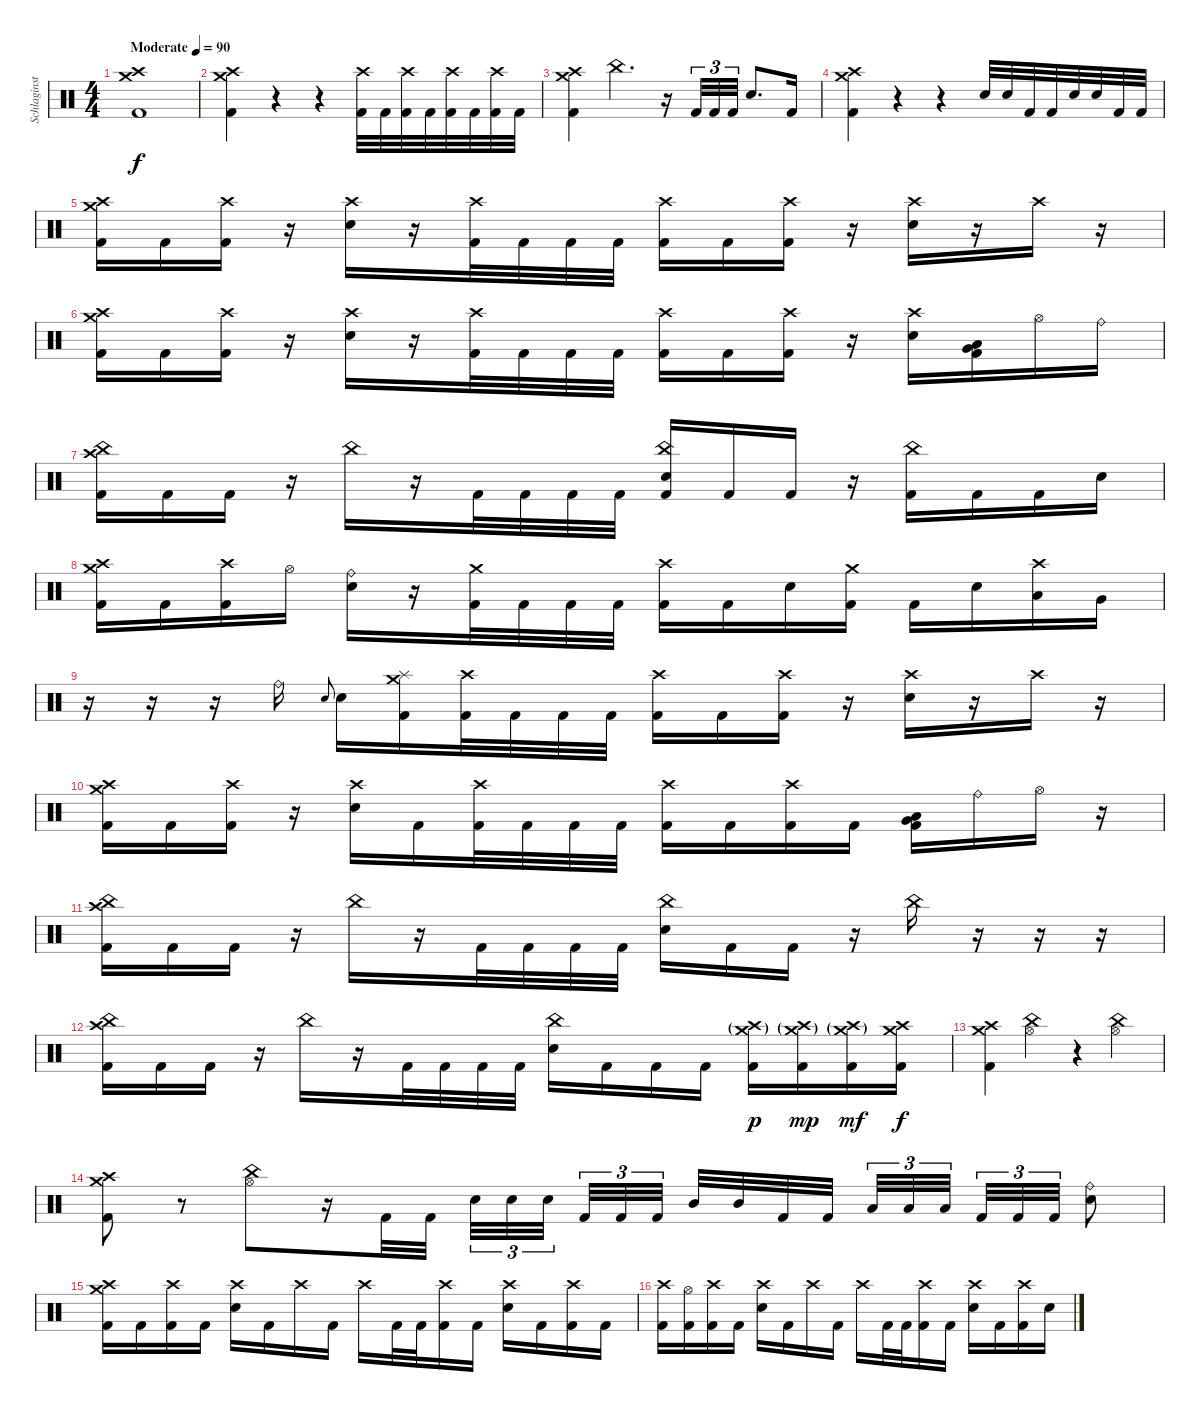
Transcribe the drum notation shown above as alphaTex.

\track ("Schlaginstrumente - Auswahl" "Schlaginst") {instrument percussion}
\staff {score}
\articulation defaults
\ts (4 4)
\tempo (90 "Moderate")
\clef neutral
\ks c
("Crash high (hit)" "Crash medium (hit)" "Kick (hit) 2").1{dy f} |
("Crash high (hit)" "Crash medium (hit)" "Kick (hit) 2").4 r.4 r.4 ("Crash high (hit)" "Kick (hit) 2").32 "Kick (hit) 2".32 ("Crash high (hit)" "Kick (hit) 2").32 "Kick (hit) 2".32 ("Crash high (hit)" "Kick (hit) 2").32 "Kick (hit) 2".32 ("Crash high (hit)" "Kick (hit) 2").32 "Kick (hit) 2".32 |
("Crash high (hit)" "Crash medium (hit)" "Kick (hit) 2").4 "China (hit)".4{d} r.16 "Kick (hit) 2".32{tu (3 2)} "Kick (hit) 2".32{tu (3 2)} "Kick (hit) 2".32{tu (3 2)} "Electric Snare (hit)".8{d} "Kick (hit) 2".16 |
("Crash high (hit)" "Crash medium (hit)" "Kick (hit) 2").4 r.4 r.4 "Electric Snare (hit)".32 "Electric Snare (hit)".32 "Kick (hit) 2".32 "Kick (hit) 2".32 "Electric Snare (hit)".32 "Electric Snare (hit)".32 "Kick (hit) 2".32 "Kick (hit) 2".32 |
("Crash high (hit)" "Crash medium (hit)" "Kick (hit) 2").16 "Kick (hit) 2".16 ("Crash high (hit)" "Kick (hit) 2").16 r.16 ("Crash high (hit)" "Electric Snare (hit)").16 r.16 ("Crash high (hit)" "Kick (hit) 2").32 "Kick (hit) 2".32 "Kick (hit) 2".32 "Kick (hit) 2".32 ("Crash high (hit)" "Kick (hit) 2").16 "Kick (hit) 2".16 ("Crash high (hit)" "Kick (hit) 2").16 r.16 ("Crash high (hit)" "Electric Snare (hit)").16 r.16 "Crash high (hit)".16 r.16 |
("Crash high (hit)" "Crash medium (hit)" "Kick (hit) 2").16 "Kick (hit) 2".16 ("Crash high (hit)" "Kick (hit) 2").16 r.16 ("Crash high (hit)" "Electric Snare (hit)").16 r.16 ("Crash high (hit)" "Kick (hit) 2").32 "Kick (hit) 2".32 "Kick (hit) 2".32 "Kick (hit) 2".32 ("Crash high (hit)" "Kick (hit) 2").16 "Kick (hit) 2".16 ("Crash high (hit)" "Kick (hit) 2").16 r.16 ("Crash high (hit)" "Electric Snare (hit)").16 ("Very Low Tom (hit)" "Low Floor Tom (hit)" "Kick (hit) 2").16 "Hi-Hat (open)".16 "Ride (bell)".16 |
("Crash high (hit)" "China (hit)" "Kick (hit) 2").16 "Kick (hit) 2".16 "Kick (hit) 2".16 r.16 "China (hit)".16 r.16 "Kick (hit) 2".32 "Kick (hit) 2".32 "Kick (hit) 2".32 "Kick (hit) 2".32 ("China (hit)" "Electric Snare (hit)" "Kick (hit) 2").16 "Kick (hit) 2".16 "Kick (hit) 2".16 r.16 ("China (hit)" "Kick (hit) 2").16 "Kick (hit) 2".16 "Kick (hit) 2".16 "Electric Snare (hit)".16 |
("Crash high (hit)" "Crash medium (hit)" "Kick (hit) 2").16 "Kick (hit) 2".16 ("Crash high (hit)" "Kick (hit) 2").16 "Hi-Hat (open)".16 ("Ride (bell)" "Electric Snare (hit)").16 r.16 ("Crash medium (hit)" "Kick (hit) 2").32 "Kick (hit) 2".32 "Kick (hit) 2".32 "Kick (hit) 2".32 ("Crash high (hit)" "Kick (hit) 2").16 "Kick (hit) 2".16 "Electric Snare (hit)".16 ("Crash medium (hit)" "Kick (hit) 2").16 "Kick (hit) 2".16 "Electric Snare (hit)".16 ("Crash high (hit)" "Low Tom (hit)").16 "Very Low Tom (hit)".16 |
r.16 r.16 r.16 "Ride (bell)".16 "Electric Snare (hit)".8{gr onbeat} "Electric Snare (hit)".16 ("Splash (hit)" "Crash medium (hit)" "Kick (hit) 2").16 ("Crash high (hit)" "Kick (hit) 2").32 "Kick (hit) 2".32 "Kick (hit) 2".32 "Kick (hit) 2".32 ("Crash high (hit)" "Kick (hit) 2").16 "Kick (hit) 2".16 ("Crash high (hit)" "Kick (hit) 2").16 r.16 ("Crash high (hit)" "Electric Snare (hit)").16 r.16 "Crash high (hit)".16 r.16 |
("Crash high (hit)" "Crash medium (hit)" "Kick (hit) 2").16 "Kick (hit) 2".16 ("Crash high (hit)" "Kick (hit) 2").16 r.16 ("Crash high (hit)" "Electric Snare (hit)").16 "Kick (hit) 2".16 ("Crash high (hit)" "Kick (hit) 2").32 "Kick (hit) 2".32 "Kick (hit) 2".32 "Kick (hit) 2".32 ("Crash high (hit)" "Kick (hit) 2").16 "Kick (hit) 2".16 ("Crash high (hit)" "Kick (hit) 2").16 "Kick (hit) 2".16 ("Very Low Tom (hit)" "Low Floor Tom (hit)" "Kick (hit) 2").16 "Ride (bell)".16 "Hi-Hat (open)".16 r.16 |
("Crash high (hit)" "China (hit)" "Kick (hit) 2").16 "Kick (hit) 2".16 "Kick (hit) 2".16 r.16 "China (hit)".16 r.16 "Kick (hit) 2".32 "Kick (hit) 2".32 "Kick (hit) 2".32 "Kick (hit) 2".32 ("China (hit)" "Electric Snare (hit)").16 "Kick (hit) 2".16 "Kick (hit) 2".16 r.16 "China (hit)".16 r.16 r.16 r.16 |
("Crash high (hit)" "China (hit)" "Kick (hit) 2").16 "Kick (hit) 2".16 "Kick (hit) 2".16 r.16 "China (hit)".16 r.16 "Kick (hit) 2".32 "Kick (hit) 2".32 "Kick (hit) 2".32 "Kick (hit) 2".32 ("China (hit)" "Electric Snare (hit)").16 "Kick (hit) 2".16 "Kick (hit) 2".16 "Kick (hit) 2".16 ("Crash medium (hit)"{g} "Crash high (hit)"{g} "Kick (hit) 2").16{dy p} ("Crash medium (hit)"{g} "Crash high (hit)"{g} "Kick (hit) 2").16{dy mp} ("Crash medium (hit)"{g} "Crash high (hit)"{g} "Kick (hit) 2").16{dy mf} ("Crash medium (hit)" "Crash high (hit)" "Kick (hit) 2").16{dy f} |
("Crash high (hit)" "Crash medium (hit)" "Kick (hit) 2").4 ("China (hit)" "Hi-Hat (open)").4 r.4 ("China (hit)" "Hi-Hat (open)").4 |
("Crash high (hit)" "Crash medium (hit)" "Kick (hit) 2").8 r.8 ("China (hit)" "Hi-Hat (open)").8 r.16 "Kick (hit) 2".32 "Kick (hit) 2".32 "Electric Snare (hit)".32{tu (3 2)} "Electric Snare (hit)".32{tu (3 2)} "Electric Snare (hit)".32{tu (3 2) beam splitsecondary} "Kick (hit) 2".32{tu (3 2)} "Kick (hit) 2".32{tu (3 2)} "Kick (hit) 2".32{tu (3 2) beam splitsecondary} "Mid Tom (hit)".32 "Mid Tom (hit)".32 "Kick (hit) 2".32 "Kick (hit) 2".32 "Low Tom (hit)".32{tu (3 2)} "Low Tom (hit)".32{tu (3 2)} "Low Tom (hit)".32{tu (3 2) beam splitsecondary} "Kick (hit) 2".32{tu (3 2)} "Kick (hit) 2".32{tu (3 2)} "Kick (hit) 2".32{tu (3 2)} ("Ride (bell)" "Electric Snare (hit)").8 |
("Crash high (hit)" "Crash medium (hit)" "Kick (hit) 2").16 "Kick (hit) 2".16 ("Crash high (hit)" "Kick (hit) 2").16 "Kick (hit) 2".16 ("Crash high (hit)" "Electric Snare (hit)").16 "Kick (hit) 2".16 "Crash high (hit)".16 "Kick (hit) 2".16 "Crash high (hit)".16 "Kick (hit) 2".32 "Kick (hit) 2".32 ("Crash high (hit)" "Kick (hit) 2").16 "Kick (hit) 2".16 ("Crash high (hit)" "Electric Snare (hit)").16 "Kick (hit) 2".16 ("Crash high (hit)" "Kick (hit) 2").16 "Kick (hit) 2".16 |
("Crash high (hit)" "Kick (hit) 2").16 ("Hi-Hat (open)" "Kick (hit) 2").16 ("Crash high (hit)" "Kick (hit) 2").16 "Kick (hit) 2".16 ("Crash high (hit)" "Electric Snare (hit)").16 "Kick (hit) 2".16 "Crash high (hit)".16 "Kick (hit) 2".16 "Crash high (hit)".16 "Kick (hit) 2".32 "Kick (hit) 2".32 ("Crash high (hit)" "Kick (hit) 2").16 "Kick (hit) 2".16 ("Crash high (hit)" "Electric Snare (hit)").16 "Kick (hit) 2".16 ("Crash high (hit)" "Kick (hit) 2").16 "Electric Snare (hit)".16
